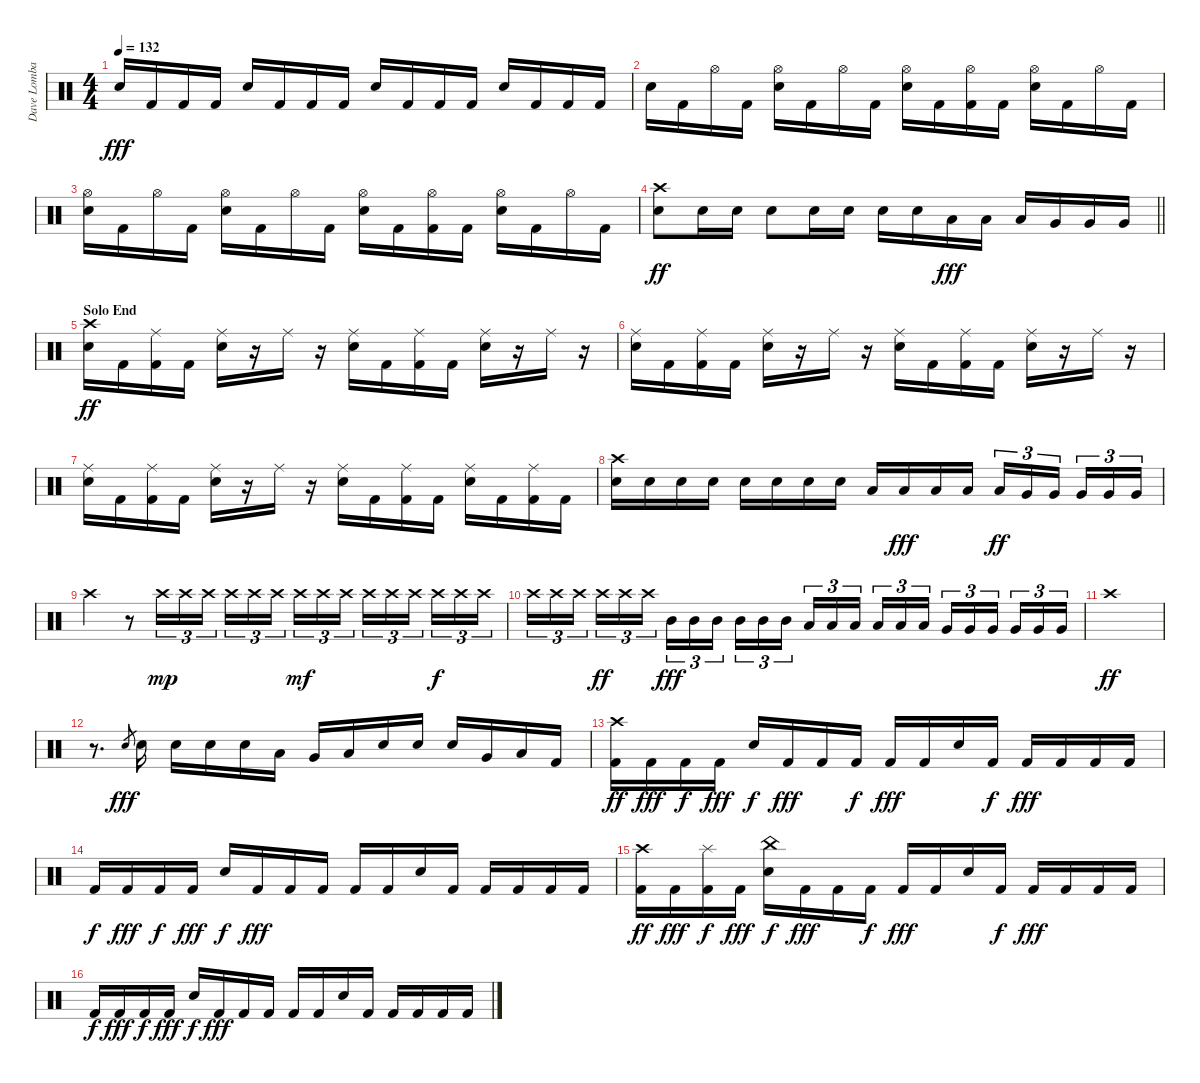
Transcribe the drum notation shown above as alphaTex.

\track ("Dave Lombardo" "Dave Lomba") {instrument percussion}
\staff {score}
\articulation defaults
\ts (4 4)
\tempo 132
\clef neutral
\ks c "Snare (hit) 2".16{dy fff} "Kick (hit) 2".16 "Kick (hit) 2".16 "Kick (hit) 2".16 "Snare (hit) 2".16 "Kick (hit) 2".16 "Kick (hit) 2".16 "Kick (hit) 2".16 "Snare (hit) 2".16 "Kick (hit) 2".16 "Kick (hit) 2".16 "Kick (hit) 2".16 "Snare (hit) 2".16 "Kick (hit) 2".16 "Kick (hit) 2".16 "Kick (hit) 2".16
|
"Snare (hit) 2".16 "Kick (hit) 2".16 "Hi-Hat (open)".16 "Kick (hit) 2".16 ("Hi-Hat (open)" "Snare (hit) 2").16 "Kick (hit) 2".16 "Hi-Hat (open)".16 "Kick (hit) 2".16 ("Hi-Hat (open)" "Snare (hit) 2").16 "Kick (hit) 2".16 ("Hi-Hat (open)" "Kick (hit) 2").16 "Kick (hit) 2".16 ("Hi-Hat (open)" "Snare (hit) 2").16 "Kick (hit) 2".16 "Hi-Hat (open)".16 "Kick (hit) 2".16 |
("Hi-Hat (open)" "Snare (hit) 2").16 "Kick (hit) 2".16 "Hi-Hat (open)".16 "Kick (hit) 2".16 ("Hi-Hat (open)" "Snare (hit) 2").16 "Kick (hit) 2".16 "Hi-Hat (open)".16 "Kick (hit) 2".16 ("Hi-Hat (open)" "Snare (hit) 2").16 "Kick (hit) 2".16 ("Hi-Hat (open)" "Kick (hit) 2").16 "Kick (hit) 2".16 ("Hi-Hat (open)" "Snare (hit) 2").16 "Kick (hit) 2".16 "Hi-Hat (open)".16 "Kick (hit) 2".16 |
\barLineRight lightlight
("Crash high (hit)" "Snare (hit) 2").8{dy ff} "Snare (hit) 2".16 "Snare (hit) 2".16 "Snare (hit) 2".8 "Snare (hit) 2".16 "Snare (hit) 2".16 "Snare (hit) 2".16 "Snare (hit) 2".16 "Low Tom (hit)".16{dy fff} "Low Tom (hit)".16 "Low Tom (hit)".16 "Very Low Tom (hit)".16 "Very Low Tom (hit)".16 "Very Low Tom (hit)".16 |
\section ("" "Solo End")
("Crash high (hit)" "Snare (hit) 2").16{dy ff} "Kick (hit) 2".16 ("Ride (middle)" "Kick (hit) 2").16 "Kick (hit) 2".16 ("Ride (middle)" "Snare (hit) 2").16 r.16 "Ride (middle)".16 r.16 ("Ride (middle)" "Snare (hit) 2").16 "Kick (hit) 2".16 ("Ride (middle)" "Kick (hit) 2").16 "Kick (hit) 2".16 ("Ride (middle)" "Snare (hit) 2").16 r.16 "Ride (middle)".16 r.16 |
("Ride (middle)" "Snare (hit) 2").16 "Kick (hit) 2".16 ("Ride (middle)" "Kick (hit) 2").16 "Kick (hit) 2".16 ("Ride (middle)" "Snare (hit) 2").16 r.16 "Ride (middle)".16 r.16 ("Ride (middle)" "Snare (hit) 2").16 "Kick (hit) 2".16 ("Ride (middle)" "Kick (hit) 2").16 "Kick (hit) 2".16 ("Ride (middle)" "Snare (hit) 2").16 r.16 "Ride (middle)".16 r.16 |
("Ride (middle)" "Snare (hit) 2").16 "Kick (hit) 2".16 ("Ride (middle)" "Kick (hit) 2").16 "Kick (hit) 2".16 ("Ride (middle)" "Snare (hit) 2").16 r.16 "Ride (middle)".16 r.16 ("Ride (middle)" "Snare (hit) 2").16 "Kick (hit) 2".16 ("Ride (middle)" "Kick (hit) 2").16 "Kick (hit) 2".16 ("Ride (middle)" "Snare (hit) 2").16 "Kick (hit) 2".16 ("Ride (middle)" "Kick (hit) 2").16 "Kick (hit) 2".16 |
("Crash high (hit)" "Snare (hit) 2").16 "Snare (hit) 2".16 "Snare (hit) 2".16 "Snare (hit) 2".16 "Snare (hit) 2".16 "Snare (hit) 2".16 "Snare (hit) 2".16 "Snare (hit) 2".16 "Low Tom (hit)".16 "Low Tom (hit)".16{dy fff} "Low Tom (hit)".16 "Low Tom (hit)".16 "Low Tom (hit)".16{tu (3 2) dy ff} "Very Low Tom (hit)".16{tu (3 2)} "Very Low Tom (hit)".16{tu (3 2) beam splitsecondary} "Very Low Tom (hit)".16{tu (3 2)} "Very Low Tom (hit)".16{tu (3 2)} "Very Low Tom (hit)".16{tu (3 2)} |
"Crash high (hit)".4 r.8 "Crash high (hit)".16{tu (3 2) dy mp} "Crash high (hit)".16{tu (3 2)} "Crash high (hit)".16{tu (3 2)} "Crash high (hit)".16{tu (3 2)} "Crash high (hit)".16{tu (3 2)} "Crash high (hit)".16{tu (3 2) beam splitsecondary} "Crash high (hit)".16{tu (3 2) dy mf} "Crash high (hit)".16{tu (3 2)} "Crash high (hit)".16{tu (3 2)} "Crash high (hit)".16{tu (3 2)} "Crash high (hit)".16{tu (3 2)} "Crash high (hit)".16{tu (3 2) beam splitsecondary} "Crash high (hit)".16{tu (3 2) dy f} "Crash high (hit)".16{tu (3 2)} "Crash high (hit)".16{tu (3 2)} |
"Crash high (hit)".16{tu (3 2)} "Crash high (hit)".16{tu (3 2)} "Crash high (hit)".16{tu (3 2) beam splitsecondary} "Crash high (hit)".16{tu (3 2) dy ff} "Crash high (hit)".16{tu (3 2)} "Crash high (hit)".16{tu (3 2)} "Mid Tom (hit)".16{tu (3 2) dy fff} "Mid Tom (hit)".16{tu (3 2)} "Mid Tom (hit)".16{tu (3 2) beam splitsecondary} "Mid Tom (hit)".16{tu (3 2)} "Mid Tom (hit)".16{tu (3 2)} "Mid Tom (hit)".16{tu (3 2)} "Low Tom (hit)".16{tu (3 2)} "Low Tom (hit)".16{tu (3 2)} "Low Tom (hit)".16{tu (3 2) beam splitsecondary} "Low Tom (hit)".16{tu (3 2)} "Low Tom (hit)".16{tu (3 2)} "Low Tom (hit)".16{tu (3 2)} "Very Low Tom (hit)".16{tu (3 2)} "Very Low Tom (hit)".16{tu (3 2)} "Very Low Tom (hit)".16{tu (3 2) beam splitsecondary} "Very Low Tom (hit)".16{tu (3 2)} "Very Low Tom (hit)".16{tu (3 2)} "Very Low Tom (hit)".16{tu (3 2)} |
"Crash high (hit)".1{dy ff} |
r.8{d} "Snare (hit) 2".8{gr dy fff} "Snare (hit) 2".16 "Snare (hit) 2".16 "Snare (hit) 2".16 "Snare (hit) 2".16 "Low Tom (hit)".16 "Very Low Tom (hit)".16 "Low Floor Tom (hit)".16 "Snare (hit) 2".16 "Snare (hit) 2".16 "Snare (hit) 2".16 "Very Low Tom (hit)".16 "Low Floor Tom (hit)".16 "Kick (hit) 2".16 |
("Crash high (hit)" "Kick (hit) 2").16{dy ff} "Kick (hit) 2".16{dy fff} "Kick (hit) 2".16{dy f} "Kick (hit) 2".16{dy fff} "Snare (hit) 2".16{dy f} "Kick (hit) 2".16{dy fff} "Kick (hit) 2".16 "Kick (hit) 2".16{dy f} "Kick (hit) 2".16{dy fff} "Kick (hit) 2".16 "Snare (hit) 2".16 "Kick (hit) 2".16{dy f} "Kick (hit) 2".16{dy fff} "Kick (hit) 2".16 "Kick (hit) 2".16 "Kick (hit) 2".16 |
"Kick (hit) 2".16{dy f} "Kick (hit) 2".16{dy fff} "Kick (hit) 2".16{dy f} "Kick (hit) 2".16{dy fff} "Snare (hit) 2".16{dy f} "Kick (hit) 2".16{dy fff} "Kick (hit) 2".16 "Kick (hit) 2".16 "Kick (hit) 2".16 "Kick (hit) 2".16 "Snare (hit) 2".16 "Kick (hit) 2".16 "Kick (hit) 2".16 "Kick (hit) 2".16 "Kick (hit) 2".16 "Kick (hit) 2".16 |
("Crash high (hit)" "Kick (hit) 2").16{dy ff} "Kick (hit) 2".16{dy fff} ("Splash (hit)" "Kick (hit) 2").16{dy f} "Kick (hit) 2".16{dy fff} ("China (hit)" "Snare (hit) 2").16{dy f} "Kick (hit) 2".16{dy fff} "Kick (hit) 2".16 "Kick (hit) 2".16{dy f} "Kick (hit) 2".16{dy fff} "Kick (hit) 2".16 "Snare (hit) 2".16 "Kick (hit) 2".16{dy f} "Kick (hit) 2".16{dy fff} "Kick (hit) 2".16 "Kick (hit) 2".16 "Kick (hit) 2".16 |
"Kick (hit) 2".16{dy f} "Kick (hit) 2".16{dy fff} "Kick (hit) 2".16{dy f} "Kick (hit) 2".16{dy fff} "Snare (hit) 2".16{dy f} "Kick (hit) 2".16{dy fff} "Kick (hit) 2".16 "Kick (hit) 2".16 "Kick (hit) 2".16 "Kick (hit) 2".16 "Snare (hit) 2".16 "Kick (hit) 2".16 "Kick (hit) 2".16 "Kick (hit) 2".16 "Kick (hit) 2".16 "Kick (hit) 2".16
